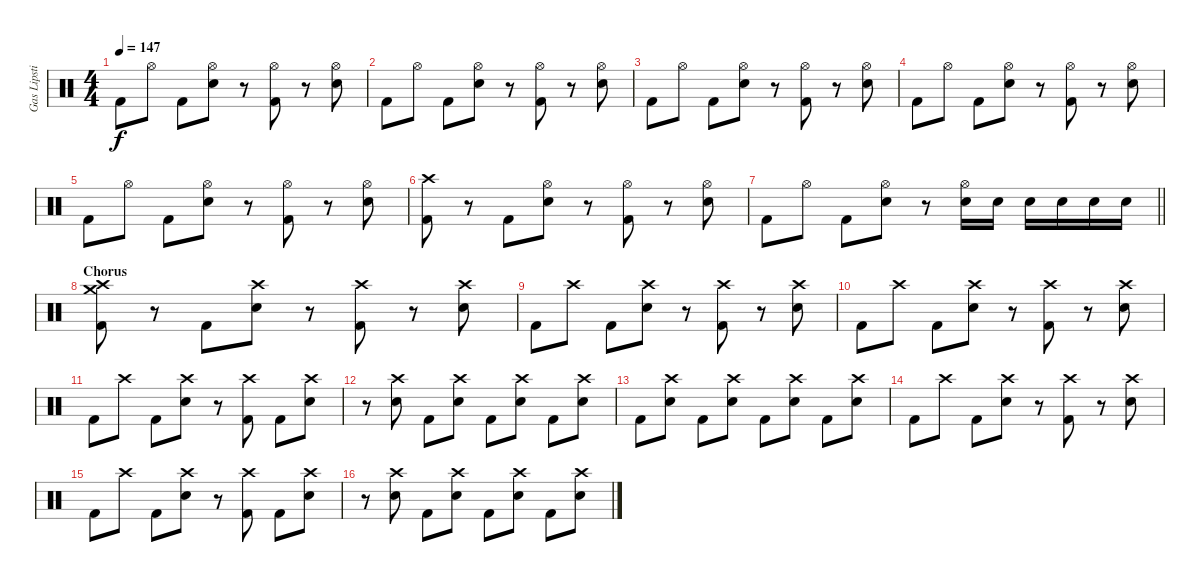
\track ("Gas Lipstick (Drums)" "Gas Lipsti") {instrument percussion}
\staff {score}
\articulation defaults
\ts (4 4)
\tempo 147
\clef neutral
\ks c "Kick (hit) 2".8{dy f} "Hi-Hat (open)".8 "Kick (hit) 2".8
("Hi-Hat (open)" "Snare (hit) 2").8 r.8 ("Hi-Hat (open)" "Kick (hit) 2").8 r.8 ("Hi-Hat (open)" "Snare (hit) 2").8 |
"Kick (hit) 2".8 "Hi-Hat (open)".8 "Kick (hit) 2".8 ("Hi-Hat (open)" "Snare (hit) 2").8 r.8 ("Hi-Hat (open)" "Kick (hit) 2").8 r.8 ("Hi-Hat (open)" "Snare (hit) 2").8 |
"Kick (hit) 2".8 "Hi-Hat (open)".8 "Kick (hit) 2".8 ("Hi-Hat (open)" "Snare (hit) 2").8 r.8 ("Hi-Hat (open)" "Kick (hit) 2").8 r.8 ("Hi-Hat (open)" "Snare (hit) 2").8 |
"Kick (hit) 2".8 "Hi-Hat (open)".8 "Kick (hit) 2".8 ("Hi-Hat (open)" "Snare (hit) 2").8 r.8 ("Hi-Hat (open)" "Kick (hit) 2").8 r.8 ("Hi-Hat (open)" "Snare (hit) 2").8 |
"Kick (hit) 2".8 "Hi-Hat (open)".8 "Kick (hit) 2".8 ("Hi-Hat (open)" "Snare (hit) 2").8 r.8 ("Hi-Hat (open)" "Kick (hit) 2").8 r.8 ("Hi-Hat (open)" "Snare (hit) 2").8 |
("Crash high (hit)" "Kick (hit) 2").8 r.8 "Kick (hit) 2".8 ("Hi-Hat (open)" "Snare (hit) 2").8 r.8 ("Hi-Hat (open)" "Kick (hit) 2").8 r.8 ("Hi-Hat (open)" "Snare (hit) 2").8 |
\barLineRight lightlight "Kick (hit) 2".8 "Hi-Hat (open)".8 "Kick (hit) 2".8
("Hi-Hat (open)" "Snare (hit) 2").8 r.8 ("Hi-Hat (open)" "Snare (hit) 2").16 "Snare (hit) 2".16 "Snare (hit) 2".16 "Snare (hit) 2".16 "Snare (hit) 2".16 "Snare (hit) 2".16 |
\section ("" "Chorus")
("Crash medium (hit)" "Crash high (hit)" "Kick (hit) 2").8 r.8 "Kick (hit) 2".8 ("Crash high (hit)" "Snare (hit) 2").8 r.8 ("Crash high (hit)" "Kick (hit) 2").8 r.8 ("Crash high (hit)" "Snare (hit) 2").8 |
"Kick (hit) 2".8 "Crash high (hit)".8 "Kick (hit) 2".8 ("Crash high (hit)" "Snare (hit) 2").8 r.8 ("Crash high (hit)" "Kick (hit) 2").8 r.8 ("Crash high (hit)" "Snare (hit) 2").8 |
"Kick (hit) 2".8 "Crash high (hit)".8 "Kick (hit) 2".8 ("Crash high (hit)" "Snare (hit) 2").8 r.8 ("Crash high (hit)" "Kick (hit) 2").8 r.8 ("Crash high (hit)" "Snare (hit) 2").8 |
"Kick (hit) 2".8 "Crash high (hit)".8 "Kick (hit) 2".8 ("Crash high (hit)" "Snare (hit) 2").8 r.8 ("Crash high (hit)" "Kick (hit) 2").8 "Kick (hit) 2".8 ("Crash high (hit)" "Snare (hit) 2").8 |
r.8 ("Crash high (hit)" "Snare (hit) 2").8 "Kick (hit) 2".8 ("Crash high (hit)" "Snare (hit) 2").8 "Kick (hit) 2".8 ("Crash high (hit)" "Snare (hit) 2").8 "Kick (hit) 2".8 ("Crash high (hit)" "Snare (hit) 2").8 |
"Kick (hit) 2".8 ("Crash high (hit)" "Snare (hit) 2").8 "Kick (hit) 2".8 ("Crash high (hit)" "Snare (hit) 2").8 "Kick (hit) 2".8 ("Crash high (hit)" "Snare (hit) 2").8 "Kick (hit) 2".8 ("Crash high (hit)" "Snare (hit) 2").8 |
"Kick (hit) 2".8 "Crash high (hit)".8 "Kick (hit) 2".8 ("Crash high (hit)" "Snare (hit) 2").8 r.8 ("Crash high (hit)" "Kick (hit) 2").8 r.8 ("Crash high (hit)" "Snare (hit) 2").8 |
"Kick (hit) 2".8 "Crash high (hit)".8 "Kick (hit) 2".8 ("Crash high (hit)" "Snare (hit) 2").8 r.8 ("Crash high (hit)" "Kick (hit) 2").8 "Kick (hit) 2".8 ("Crash high (hit)" "Snare (hit) 2").8 |
r.8 ("Crash high (hit)" "Snare (hit) 2").8 "Kick (hit) 2".8 ("Crash high (hit)" "Snare (hit) 2").8 "Kick (hit) 2".8 ("Crash high (hit)" "Snare (hit) 2").8 "Kick (hit) 2".8 ("Crash high (hit)" "Snare (hit) 2").8
